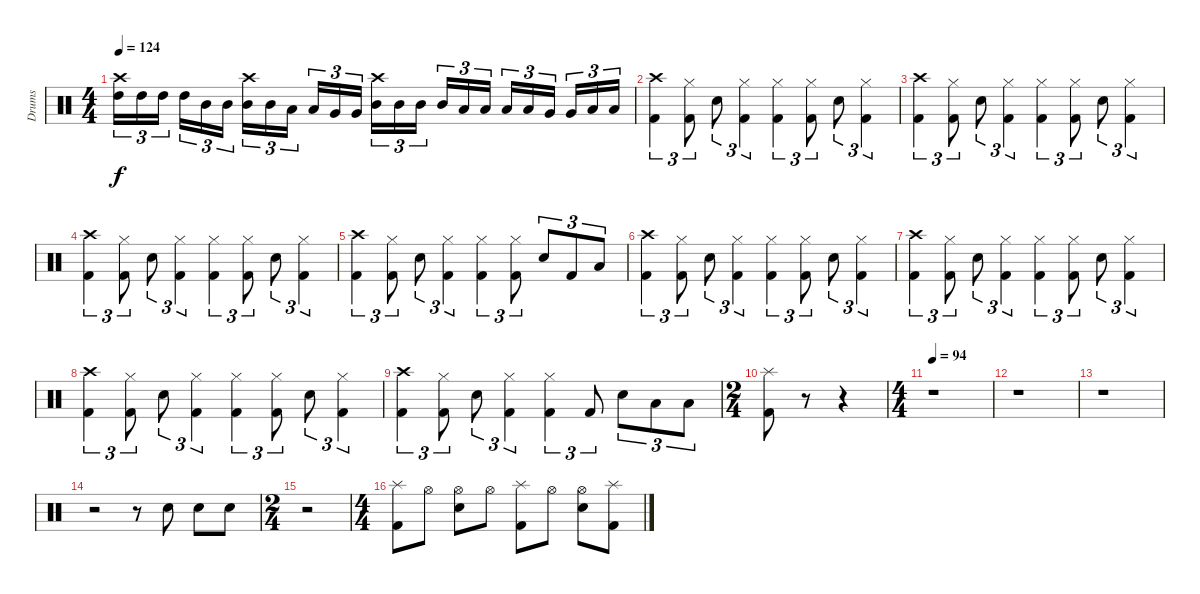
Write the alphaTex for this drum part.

\track ("Drums" "Drums") {instrument percussion}
\staff {score}
\articulation defaults
\ts (4 4)
\tempo 124
\clef neutral
\ks c
("Crash high (hit)" "High Tom (hit)").16{tu (3 2) dy f} "High Tom (hit)".16{tu (3 2)} "High Tom (hit)".16{tu (3 2)} "High Tom (hit)".16{tu (3 2)} "Mid Tom (hit)".16{tu (3 2)} "Mid Tom (hit)".16{tu (3 2)} ("Crash high (hit)" "Mid Tom (hit)").16{tu (3 2)} "Mid Tom (hit)".16{tu (3 2)} "Low Tom (hit)".16{tu (3 2)} "Low Tom (hit)".16{tu (3 2)} "Very Low Tom (hit)".16{tu (3 2)} "Very Low Tom (hit)".16{tu (3 2)} ("Crash high (hit)" "Mid Tom (hit)").16{tu (3 2)} "Mid Tom (hit)".16{tu (3 2)} "Mid Tom (hit)".16{tu (3 2)} "Mid Tom (hit)".16{tu (3 2)} "Low Tom (hit)".16{tu (3 2)} "Low Tom (hit)".16{tu (3 2)} "Low Tom (hit)".16{tu (3 2)} "Low Tom (hit)".16{tu (3 2)} "Very Low Tom (hit)".16{tu (3 2)} "Very Low Tom (hit)".16{tu (3 2)} "Low Floor Tom (hit)".16{tu (3 2)} "Low Floor Tom (hit)".16{tu (3 2)} |
("Crash high (hit)" "Kick (hit) 2").4{tu (3 2)} ("Hi-Hat (closed)" "Kick (hit) 2").8{tu (3 2)} "Electric Snare (hit)".8{tu (3 2)} ("Hi-Hat (closed)" "Kick (hit) 2").4{tu (3 2)} ("Hi-Hat (closed)" "Kick (hit) 2").4{tu (3 2)} ("Hi-Hat (closed)" "Kick (hit) 2").8{tu (3 2)} "Electric Snare (hit)".8{tu (3 2)} ("Hi-Hat (closed)" "Kick (hit) 2").4{tu (3 2)} |
("Crash high (hit)" "Kick (hit) 2").4{tu (3 2)} ("Hi-Hat (closed)" "Kick (hit) 2").8{tu (3 2)} "Electric Snare (hit)".8{tu (3 2)} ("Hi-Hat (closed)" "Kick (hit) 2").4{tu (3 2)} ("Hi-Hat (closed)" "Kick (hit) 2").4{tu (3 2)} ("Hi-Hat (closed)" "Kick (hit) 2").8{tu (3 2)} "Electric Snare (hit)".8{tu (3 2)} ("Hi-Hat (closed)" "Kick (hit) 2").4{tu (3 2)} |
("Crash high (hit)" "Kick (hit) 2").4{tu (3 2)} ("Hi-Hat (closed)" "Kick (hit) 2").8{tu (3 2)} "Electric Snare (hit)".8{tu (3 2)} ("Hi-Hat (closed)" "Kick (hit) 2").4{tu (3 2)} ("Hi-Hat (closed)" "Kick (hit) 2").4{tu (3 2)} ("Hi-Hat (closed)" "Kick (hit) 2").8{tu (3 2)} "Electric Snare (hit)".8{tu (3 2)} ("Hi-Hat (closed)" "Kick (hit) 2").4{tu (3 2)} |
("Crash high (hit)" "Kick (hit) 2").4{tu (3 2)} ("Hi-Hat (closed)" "Kick (hit) 2").8{tu (3 2)} "Electric Snare (hit)".8{tu (3 2)} ("Hi-Hat (closed)" "Kick (hit) 2").4{tu (3 2)} ("Hi-Hat (closed)" "Kick (hit) 2").4{tu (3 2)} ("Hi-Hat (closed)" "Kick (hit) 2").8{tu (3 2)} "Electric Snare (hit)".8{tu (3 2)} "Kick (hit) 2".8{tu (3 2)} "Low Tom (hit)".8{tu (3 2)} |
("Crash high (hit)" "Kick (hit) 2").4{tu (3 2)} ("Hi-Hat (closed)" "Kick (hit) 2").8{tu (3 2)} "Electric Snare (hit)".8{tu (3 2)} ("Hi-Hat (closed)" "Kick (hit) 2").4{tu (3 2)} ("Hi-Hat (closed)" "Kick (hit) 2").4{tu (3 2)} ("Hi-Hat (closed)" "Kick (hit) 2").8{tu (3 2)} "Electric Snare (hit)".8{tu (3 2)} ("Hi-Hat (closed)" "Kick (hit) 2").4{tu (3 2)} |
("Crash high (hit)" "Kick (hit) 2").4{tu (3 2)} ("Hi-Hat (closed)" "Kick (hit) 2").8{tu (3 2)} "Electric Snare (hit)".8{tu (3 2)} ("Hi-Hat (closed)" "Kick (hit) 2").4{tu (3 2)} ("Hi-Hat (closed)" "Kick (hit) 2").4{tu (3 2)} ("Hi-Hat (closed)" "Kick (hit) 2").8{tu (3 2)} "Electric Snare (hit)".8{tu (3 2)} ("Hi-Hat (closed)" "Kick (hit) 2").4{tu (3 2)} |
("Crash high (hit)" "Kick (hit) 2").4{tu (3 2)} ("Hi-Hat (closed)" "Kick (hit) 2").8{tu (3 2)} "Electric Snare (hit)".8{tu (3 2)} ("Hi-Hat (closed)" "Kick (hit) 2").4{tu (3 2)} ("Hi-Hat (closed)" "Kick (hit) 2").4{tu (3 2)} ("Hi-Hat (closed)" "Kick (hit) 2").8{tu (3 2)} "Electric Snare (hit)".8{tu (3 2)} ("Hi-Hat (closed)" "Kick (hit) 2").4{tu (3 2)} |
("Crash high (hit)" "Kick (hit) 2").4{tu (3 2)} ("Hi-Hat (closed)" "Kick (hit) 2").8{tu (3 2)} "Electric Snare (hit)".8{tu (3 2)} ("Hi-Hat (closed)" "Kick (hit) 2").4{tu (3 2)} ("Hi-Hat (closed)" "Kick (hit) 2").4{tu (3 2)} "Kick (hit) 2".8{tu (3 2)} "Electric Snare (hit)".8{tu (3 2)} "Low Tom (hit)".8{tu (3 2)} "Low Tom (hit)".8{tu (3 2)} |
\ts (2 4)
("Splash (hit)" "Kick (hit) 2").8 r.8 r.4 |
\ts (4 4)
\tempo 94
r.1 |
r.1 |
r.1 |
r.2 r.8 "Electric Snare (hit)".8 "Electric Snare (hit)".8 "Electric Snare (hit)".8 |
\ts (2 4)
r.2 |
\ts (4 4)
("Splash (hit)" "Kick (hit) 2").8 "Hi-Hat (open)".8 ("Hi-Hat (open)" "Electric Snare (hit)").8 "Hi-Hat (open)".8 ("Splash (hit)" "Kick (hit) 2").8 "Hi-Hat (open)".8 ("Hi-Hat (open)" "Electric Snare (hit)").8 ("Splash (hit)" "Kick (hit) 2").8
